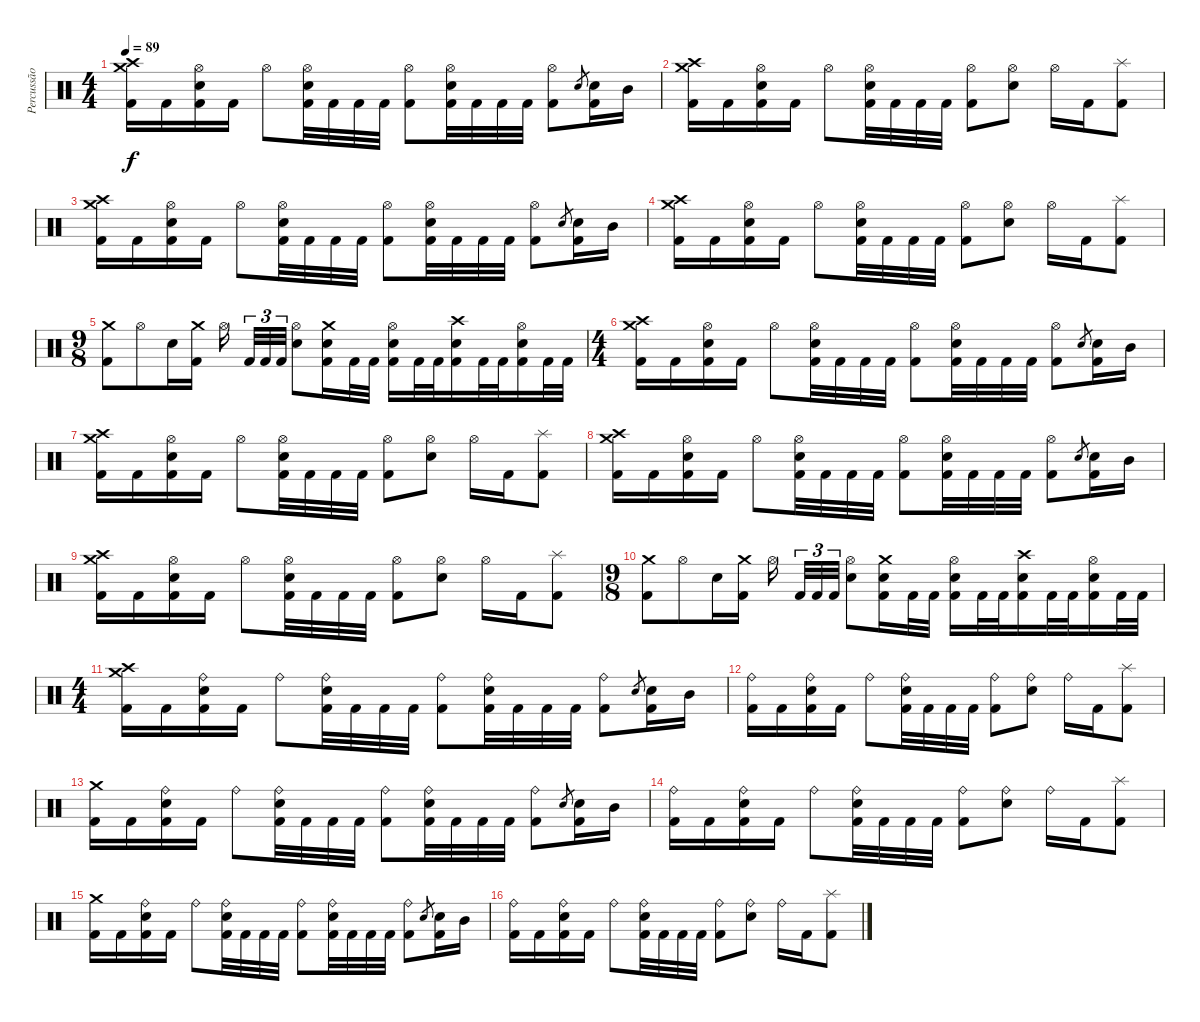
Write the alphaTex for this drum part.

\track ("Percussão" "Percussão") {instrument percussion}
\staff {score}
\articulation defaults
\ts (4 4)
\tempo 89
\clef neutral
\ks c
("Crash high (hit)" "Crash medium (hit)" "Kick (hit) 2").16{dy f} "Kick (hit) 2".16 ("Hi-Hat (open)" "Snare (hit) 2" "Kick (hit) 2").16 "Kick (hit) 2".16 "Hi-Hat (open)".8 ("Hi-Hat (open)" "Snare (hit) 2" "Kick (hit) 2").32 "Kick (hit) 2".32 "Kick (hit) 2".32 "Kick (hit) 2".32 ("Hi-Hat (open)" "Kick (hit) 2").8 ("Hi-Hat (open)" "Snare (hit) 2" "Kick (hit) 2").32 "Kick (hit) 2".32 "Kick (hit) 2".32 "Kick (hit) 2".32 ("Hi-Hat (open)" "Kick (hit) 2").8 "Snare (hit) 2".8{gr} ("Snare (hit) 2" "Kick (hit) 2").16 "Mid Tom (hit)".16 |
("Crash high (hit)" "Crash medium (hit)" "Kick (hit) 2").16 "Kick (hit) 2".16 ("Hi-Hat (open)" "Snare (hit) 2" "Kick (hit) 2").16 "Kick (hit) 2".16 "Hi-Hat (open)".8 ("Hi-Hat (open)" "Snare (hit) 2" "Kick (hit) 2").32 "Kick (hit) 2".32 "Kick (hit) 2".32 "Kick (hit) 2".32 ("Hi-Hat (open)" "Kick (hit) 2").8 ("Hi-Hat (open)" "Snare (hit) 2").8 "Hi-Hat (open)".16 "Kick (hit) 2".16 ("Splash (hit)" "Kick (hit) 2").8 |
("Crash high (hit)" "Crash medium (hit)" "Kick (hit) 2").16 "Kick (hit) 2".16 ("Hi-Hat (open)" "Snare (hit) 2" "Kick (hit) 2").16 "Kick (hit) 2".16 "Hi-Hat (open)".8 ("Hi-Hat (open)" "Snare (hit) 2" "Kick (hit) 2").32 "Kick (hit) 2".32 "Kick (hit) 2".32 "Kick (hit) 2".32 ("Hi-Hat (open)" "Kick (hit) 2").8 ("Hi-Hat (open)" "Snare (hit) 2" "Kick (hit) 2").32 "Kick (hit) 2".32 "Kick (hit) 2".32 "Kick (hit) 2".32 ("Hi-Hat (open)" "Kick (hit) 2").8 "Snare (hit) 2".8{gr} ("Snare (hit) 2" "Kick (hit) 2").16 "Mid Tom (hit)".16 |
("Crash high (hit)" "Crash medium (hit)" "Kick (hit) 2").16 "Kick (hit) 2".16 ("Hi-Hat (open)" "Snare (hit) 2" "Kick (hit) 2").16 "Kick (hit) 2".16 "Hi-Hat (open)".8 ("Hi-Hat (open)" "Snare (hit) 2" "Kick (hit) 2").32 "Kick (hit) 2".32 "Kick (hit) 2".32 "Kick (hit) 2".32 ("Hi-Hat (open)" "Kick (hit) 2").8 ("Hi-Hat (open)" "Snare (hit) 2").8 "Hi-Hat (open)".16 "Kick (hit) 2".16 ("Splash (hit)" "Kick (hit) 2").8 |
\ts (9 8)
("Crash medium (hit)" "Kick (hit) 2").8 "Hi-Hat (open)".8 "Snare (hit) 2".16 ("Crash medium (hit)" "Kick (hit) 2").16 "Hi-Hat (open)".16 "Kick (hit) 2".32{tu (3 2)} "Kick (hit) 2".32{tu (3 2)} "Kick (hit) 2".32{tu (3 2)} ("Hi-Hat (open)" "Snare (hit) 2").8 ("Crash medium (hit)" "Snare (hit) 2" "Kick (hit) 2").16 "Kick (hit) 2".32 "Kick (hit) 2".32 ("Hi-Hat (open)" "Snare (hit) 2" "Kick (hit) 2").16 "Kick (hit) 2".32 "Kick (hit) 2".32 ("Crash high (hit)" "Snare (hit) 2" "Kick (hit) 2").16 "Kick (hit) 2".32 "Kick (hit) 2".32 ("Hi-Hat (open)" "Snare (hit) 2" "Kick (hit) 2").16 "Kick (hit) 2".32 "Kick (hit) 2".32 |
\ts (4 4)
("Crash high (hit)" "Crash medium (hit)" "Kick (hit) 2").16 "Kick (hit) 2".16 ("Hi-Hat (open)" "Snare (hit) 2" "Kick (hit) 2").16 "Kick (hit) 2".16 "Hi-Hat (open)".8 ("Hi-Hat (open)" "Snare (hit) 2" "Kick (hit) 2").32 "Kick (hit) 2".32 "Kick (hit) 2".32 "Kick (hit) 2".32 ("Hi-Hat (open)" "Kick (hit) 2").8 ("Hi-Hat (open)" "Snare (hit) 2" "Kick (hit) 2").32 "Kick (hit) 2".32 "Kick (hit) 2".32 "Kick (hit) 2".32 ("Hi-Hat (open)" "Kick (hit) 2").8 "Snare (hit) 2".8{gr} ("Snare (hit) 2" "Kick (hit) 2").16 "Mid Tom (hit)".16 |
("Crash high (hit)" "Crash medium (hit)" "Kick (hit) 2").16 "Kick (hit) 2".16 ("Hi-Hat (open)" "Snare (hit) 2" "Kick (hit) 2").16 "Kick (hit) 2".16 "Hi-Hat (open)".8 ("Hi-Hat (open)" "Snare (hit) 2" "Kick (hit) 2").32 "Kick (hit) 2".32 "Kick (hit) 2".32 "Kick (hit) 2".32 ("Hi-Hat (open)" "Kick (hit) 2").8 ("Hi-Hat (open)" "Snare (hit) 2").8 "Hi-Hat (open)".16 "Kick (hit) 2".16 ("Splash (hit)" "Kick (hit) 2").8 |
("Crash high (hit)" "Crash medium (hit)" "Kick (hit) 2").16 "Kick (hit) 2".16 ("Hi-Hat (open)" "Snare (hit) 2" "Kick (hit) 2").16 "Kick (hit) 2".16 "Hi-Hat (open)".8 ("Hi-Hat (open)" "Snare (hit) 2" "Kick (hit) 2").32 "Kick (hit) 2".32 "Kick (hit) 2".32 "Kick (hit) 2".32 ("Hi-Hat (open)" "Kick (hit) 2").8 ("Hi-Hat (open)" "Snare (hit) 2" "Kick (hit) 2").32 "Kick (hit) 2".32 "Kick (hit) 2".32 "Kick (hit) 2".32 ("Hi-Hat (open)" "Kick (hit) 2").8 "Snare (hit) 2".8{gr} ("Snare (hit) 2" "Kick (hit) 2").16 "Mid Tom (hit)".16 |
("Crash high (hit)" "Crash medium (hit)" "Kick (hit) 2").16 "Kick (hit) 2".16 ("Hi-Hat (open)" "Snare (hit) 2" "Kick (hit) 2").16 "Kick (hit) 2".16 "Hi-Hat (open)".8 ("Hi-Hat (open)" "Snare (hit) 2" "Kick (hit) 2").32 "Kick (hit) 2".32 "Kick (hit) 2".32 "Kick (hit) 2".32 ("Hi-Hat (open)" "Kick (hit) 2").8 ("Hi-Hat (open)" "Snare (hit) 2").8 "Hi-Hat (open)".16 "Kick (hit) 2".16 ("Splash (hit)" "Kick (hit) 2").8 |
\ts (9 8)
("Crash medium (hit)" "Kick (hit) 2").8 "Hi-Hat (open)".8 "Snare (hit) 2".16 ("Crash medium (hit)" "Kick (hit) 2").16 "Hi-Hat (open)".16 "Kick (hit) 2".32{tu (3 2)} "Kick (hit) 2".32{tu (3 2)} "Kick (hit) 2".32{tu (3 2)} ("Hi-Hat (open)" "Snare (hit) 2").8 ("Crash medium (hit)" "Snare (hit) 2" "Kick (hit) 2").16 "Kick (hit) 2".32 "Kick (hit) 2".32 ("Hi-Hat (open)" "Snare (hit) 2" "Kick (hit) 2").16 "Kick (hit) 2".32 "Kick (hit) 2".32 ("Crash high (hit)" "Snare (hit) 2" "Kick (hit) 2").16 "Kick (hit) 2".32 "Kick (hit) 2".32 ("Hi-Hat (open)" "Snare (hit) 2" "Kick (hit) 2").16 "Kick (hit) 2".32 "Kick (hit) 2".32 |
\ts (4 4)
("Crash high (hit)" "Crash medium (hit)" "Kick (hit) 2").16 "Kick (hit) 2".16 ("Ride (bell)" "Snare (hit) 2" "Kick (hit) 2").16 "Kick (hit) 2".16 "Ride (bell)".8 ("Ride (bell)" "Snare (hit) 2" "Kick (hit) 2").32 "Kick (hit) 2".32 "Kick (hit) 2".32 "Kick (hit) 2".32 ("Ride (bell)" "Kick (hit) 2").8 ("Ride (bell)" "Snare (hit) 2" "Kick (hit) 2").32 "Kick (hit) 2".32 "Kick (hit) 2".32 "Kick (hit) 2".32 ("Ride (bell)" "Kick (hit) 2").8 "Snare (hit) 2".8{gr} ("Snare (hit) 2" "Kick (hit) 2").16 "Mid Tom (hit)".16 |
("Ride (bell)" "Kick (hit) 2").16 "Kick (hit) 2".16 ("Ride (bell)" "Snare (hit) 2" "Kick (hit) 2").16 "Kick (hit) 2".16 "Ride (bell)".8 ("Ride (bell)" "Snare (hit) 2" "Kick (hit) 2").32 "Kick (hit) 2".32 "Kick (hit) 2".32 "Kick (hit) 2".32 ("Ride (bell)" "Kick (hit) 2").8 ("Ride (bell)" "Snare (hit) 2").8 "Ride (bell)".16 "Kick (hit) 2".16 ("Splash (hit)" "Kick (hit) 2").8 |
("Crash medium (hit)" "Kick (hit) 2").16 "Kick (hit) 2".16 ("Ride (bell)" "Snare (hit) 2" "Kick (hit) 2").16 "Kick (hit) 2".16 "Ride (bell)".8 ("Ride (bell)" "Snare (hit) 2" "Kick (hit) 2").32 "Kick (hit) 2".32 "Kick (hit) 2".32 "Kick (hit) 2".32 ("Ride (bell)" "Kick (hit) 2").8 ("Ride (bell)" "Snare (hit) 2" "Kick (hit) 2").32 "Kick (hit) 2".32 "Kick (hit) 2".32 "Kick (hit) 2".32 ("Ride (bell)" "Kick (hit) 2").8 "Snare (hit) 2".8{gr} ("Snare (hit) 2" "Kick (hit) 2").16 "Mid Tom (hit)".16 |
("Ride (bell)" "Kick (hit) 2").16 "Kick (hit) 2".16 ("Ride (bell)" "Snare (hit) 2" "Kick (hit) 2").16 "Kick (hit) 2".16 "Ride (bell)".8 ("Ride (bell)" "Snare (hit) 2" "Kick (hit) 2").32 "Kick (hit) 2".32 "Kick (hit) 2".32 "Kick (hit) 2".32 ("Ride (bell)" "Kick (hit) 2").8 ("Ride (bell)" "Snare (hit) 2").8 "Ride (bell)".16 "Kick (hit) 2".16 ("Splash (hit)" "Kick (hit) 2").8 |
("Crash medium (hit)" "Kick (hit) 2").16 "Kick (hit) 2".16 ("Ride (bell)" "Snare (hit) 2" "Kick (hit) 2").16 "Kick (hit) 2".16 "Ride (bell)".8 ("Ride (bell)" "Snare (hit) 2" "Kick (hit) 2").32 "Kick (hit) 2".32 "Kick (hit) 2".32 "Kick (hit) 2".32 ("Ride (bell)" "Kick (hit) 2").8 ("Ride (bell)" "Snare (hit) 2" "Kick (hit) 2").32 "Kick (hit) 2".32 "Kick (hit) 2".32 "Kick (hit) 2".32 ("Ride (bell)" "Kick (hit) 2").8 "Snare (hit) 2".8{gr} ("Snare (hit) 2" "Kick (hit) 2").16 "Mid Tom (hit)".16 |
("Ride (bell)" "Kick (hit) 2").16 "Kick (hit) 2".16 ("Ride (bell)" "Snare (hit) 2" "Kick (hit) 2").16 "Kick (hit) 2".16 "Ride (bell)".8 ("Ride (bell)" "Snare (hit) 2" "Kick (hit) 2").32 "Kick (hit) 2".32 "Kick (hit) 2".32 "Kick (hit) 2".32 ("Ride (bell)" "Kick (hit) 2").8 ("Ride (bell)" "Snare (hit) 2").8 "Ride (bell)".16 "Kick (hit) 2".16 ("Splash (hit)" "Kick (hit) 2").8
